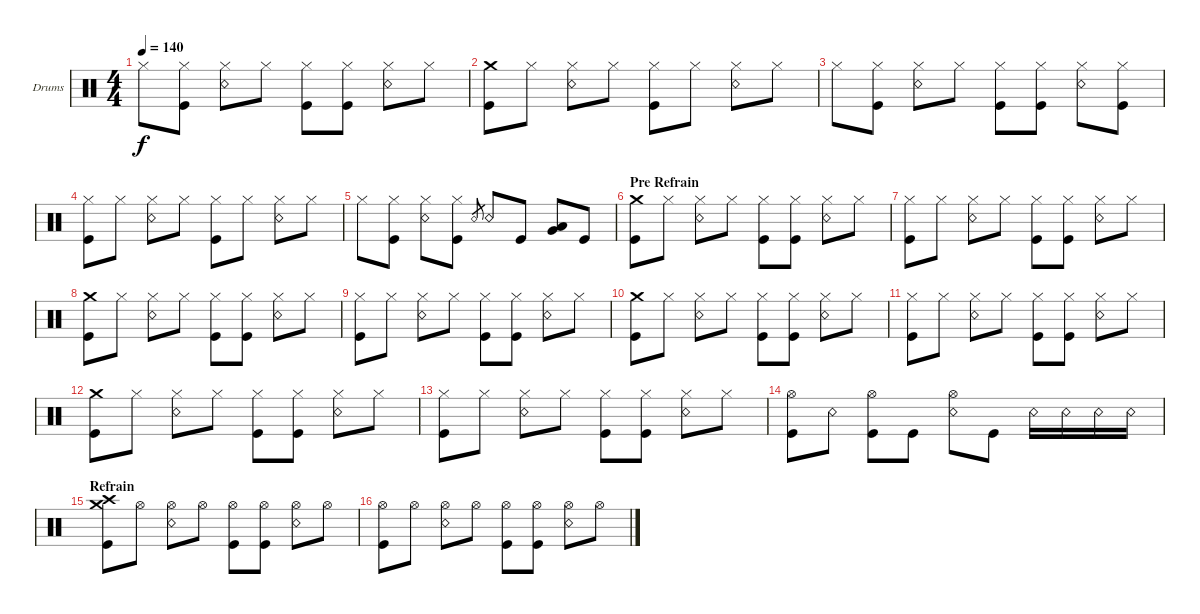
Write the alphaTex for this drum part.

\bracketExtendMode groupsimilarinstruments
\firstSystemTrackNameOrientation horizontal
\otherSystemsTrackNameOrientation horizontal
\track ("Drumkit" "Drums") {instrument percussion}
\staff {score}
\articulation defaults
\ts (4 4)
\tempo 140
\clef neutral
\ks c "Hi-Hat (closed)".8{dy f}
("Hi-Hat (closed)" "Kick (hit)").8 ("Hi-Hat (closed)" "Snare (rim shot)").8 "Hi-Hat (closed)".8 ("Hi-Hat (closed)" "Kick (hit)").8 ("Hi-Hat (closed)" "Kick (hit)").8 ("Hi-Hat (closed)" "Snare (rim shot)").8 "Hi-Hat (closed)".8 |
("Kick (hit)" "Crash medium (hit)").8 "Hi-Hat (closed)".8 ("Hi-Hat (closed)" "Snare (rim shot)").8 "Hi-Hat (closed)".8 ("Hi-Hat (closed)" "Kick (hit)").8 "Hi-Hat (closed)".8 ("Hi-Hat (closed)" "Snare (rim shot)").8 "Hi-Hat (closed)".8 |
"Hi-Hat (closed)".8 ("Hi-Hat (closed)" "Kick (hit)").8 ("Hi-Hat (closed)" "Snare (rim shot)").8 "Hi-Hat (closed)".8 ("Hi-Hat (closed)" "Kick (hit)").8 ("Hi-Hat (closed)" "Kick (hit)").8 ("Hi-Hat (closed)" "Snare (rim shot)").8 ("Hi-Hat (closed)" "Kick (hit)").8 |
("Kick (hit)" "Hi-Hat (closed)").8 "Hi-Hat (closed)".8 ("Hi-Hat (closed)" "Snare (rim shot)").8 "Hi-Hat (closed)".8 ("Hi-Hat (closed)" "Kick (hit)").8 "Hi-Hat (closed)".8 ("Hi-Hat (closed)" "Snare (rim shot)").8 "Hi-Hat (closed)".8 |
"Hi-Hat (closed)".8 ("Hi-Hat (closed)" "Kick (hit)").8 ("Hi-Hat (closed)" "Snare (rim shot)").8 ("Hi-Hat (closed)" "Kick (hit)").8 "Snare (rim shot)".8{gr} "Snare (rim shot)".8 "Kick (hit)".8 ("Very Low Tom (hit)" "Low Tom (hit)").8 "Kick (hit)".8 |
\section ("" "Pre Refrain")
("Kick (hit)" "Crash medium (hit)").8 "Hi-Hat (closed)".8 ("Hi-Hat (closed)" "Snare (rim shot)").8 "Hi-Hat (closed)".8 ("Hi-Hat (closed)" "Kick (hit)").8 ("Hi-Hat (closed)" "Kick (hit)").8 ("Hi-Hat (closed)" "Snare (rim shot)").8 "Hi-Hat (closed)".8 |
("Kick (hit)" "Hi-Hat (closed)").8 "Hi-Hat (closed)".8 ("Hi-Hat (closed)" "Snare (rim shot)").8 "Hi-Hat (closed)".8 ("Hi-Hat (closed)" "Kick (hit)").8 ("Hi-Hat (closed)" "Kick (hit)").8 ("Hi-Hat (closed)" "Snare (rim shot)").8 "Hi-Hat (closed)".8 |
("Kick (hit)" "Crash medium (hit)").8 "Hi-Hat (closed)".8 ("Hi-Hat (closed)" "Snare (rim shot)").8 "Hi-Hat (closed)".8 ("Hi-Hat (closed)" "Kick (hit)").8 ("Hi-Hat (closed)" "Kick (hit)").8 ("Hi-Hat (closed)" "Snare (rim shot)").8 "Hi-Hat (closed)".8 |
("Kick (hit)" "Hi-Hat (closed)").8 "Hi-Hat (closed)".8 ("Hi-Hat (closed)" "Snare (rim shot)").8 "Hi-Hat (closed)".8 ("Hi-Hat (closed)" "Kick (hit)").8 ("Hi-Hat (closed)" "Kick (hit)").8 ("Hi-Hat (closed)" "Snare (rim shot)").8 "Hi-Hat (closed)".8 |
("Kick (hit)" "Crash medium (hit)").8 "Hi-Hat (closed)".8 ("Hi-Hat (closed)" "Snare (rim shot)").8 "Hi-Hat (closed)".8 ("Hi-Hat (closed)" "Kick (hit)").8 ("Hi-Hat (closed)" "Kick (hit)").8 ("Hi-Hat (closed)" "Snare (rim shot)").8 "Hi-Hat (closed)".8 |
("Kick (hit)" "Hi-Hat (closed)").8 "Hi-Hat (closed)".8 ("Hi-Hat (closed)" "Snare (rim shot)").8 "Hi-Hat (closed)".8 ("Hi-Hat (closed)" "Kick (hit)").8 ("Hi-Hat (closed)" "Kick (hit)").8 ("Hi-Hat (closed)" "Snare (rim shot)").8 "Hi-Hat (closed)".8 |
("Kick (hit)" "Crash medium (hit)").8 "Hi-Hat (closed)".8 ("Hi-Hat (closed)" "Snare (rim shot)").8 "Hi-Hat (closed)".8 ("Hi-Hat (closed)" "Kick (hit)").8 ("Hi-Hat (closed)" "Kick (hit)").8 ("Hi-Hat (closed)" "Snare (rim shot)").8 "Hi-Hat (closed)".8 |
("Kick (hit)" "Hi-Hat (closed)").8 "Hi-Hat (closed)".8 ("Hi-Hat (closed)" "Snare (rim shot)").8 "Hi-Hat (closed)".8 ("Hi-Hat (closed)" "Kick (hit)").8 ("Hi-Hat (closed)" "Kick (hit)").8 ("Hi-Hat (closed)" "Snare (rim shot)").8 "Hi-Hat (closed)".8 |
("Kick (hit)" "Hi-Hat (open)").8 "Snare (rim shot)".8 ("Kick (hit)" "Hi-Hat (open)").8 "Kick (hit)".8 ("Snare (rim shot)" "Hi-Hat (open)").8 "Kick (hit)".8 "Snare (rim shot)".16 "Snare (rim shot)".16 "Snare (rim shot)".16 "Snare (rim shot)".16 |
\section ("" "Refrain")
("Kick (hit)" "Crash medium (hit)" "Crash high (hit)").8 "Hi-Hat (open)".8 ("Hi-Hat (open)" "Snare (rim shot)").8 "Hi-Hat (open)".8 ("Hi-Hat (open)" "Kick (hit)").8 ("Hi-Hat (open)" "Kick (hit)").8 ("Snare (rim shot)" "Hi-Hat (open)").8 "Hi-Hat (open)".8 |
("Kick (hit)" "Hi-Hat (open)").8 "Hi-Hat (open)".8 ("Hi-Hat (open)" "Snare (rim shot)").8 "Hi-Hat (open)".8 ("Hi-Hat (open)" "Kick (hit)").8 ("Hi-Hat (open)" "Kick (hit)").8 ("Snare (rim shot)" "Hi-Hat (open)").8 "Hi-Hat (open)".8
